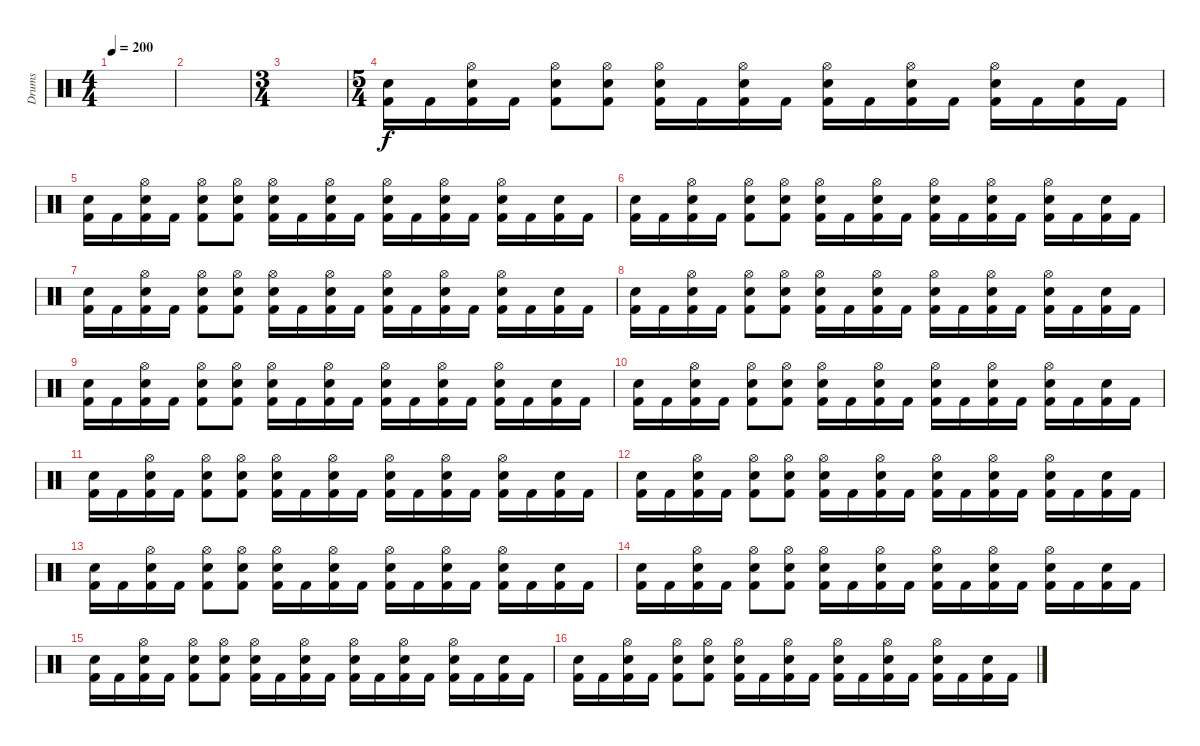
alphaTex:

\track ("Drums" "Drums") {instrument percussion}
\staff {score}
\articulation defaults
\ts (4 4)
\tempo 200
\clef neutral
\ks c
|
|
\ts (3 4)
|
\ts (5 4)
("Electric Snare (hit)" "Kick (hit) 2").16 "Kick (hit) 2".16 ("Hi-Hat (open)" "Electric Snare (hit)" "Kick (hit) 2").16 "Kick (hit) 2".16 ("Hi-Hat (open)" "Electric Snare (hit)" "Kick (hit) 2").8 ("Hi-Hat (open)" "Electric Snare (hit)" "Kick (hit) 2").8 ("Hi-Hat (open)" "Electric Snare (hit)" "Kick (hit) 2").16 "Kick (hit) 2".16 ("Hi-Hat (open)" "Electric Snare (hit)" "Kick (hit) 2").16 "Kick (hit) 2".16 ("Hi-Hat (open)" "Electric Snare (hit)" "Kick (hit) 2").16 "Kick (hit) 2".16 ("Hi-Hat (open)" "Electric Snare (hit)" "Kick (hit) 2").16 "Kick (hit) 2".16 ("Hi-Hat (open)" "Electric Snare (hit)" "Kick (hit) 2").16 "Kick (hit) 2".16 ("Electric Snare (hit)" "Kick (hit) 2").16 "Kick (hit) 2".16 |
("Electric Snare (hit)" "Kick (hit) 2").16 "Kick (hit) 2".16 ("Hi-Hat (open)" "Electric Snare (hit)" "Kick (hit) 2").16 "Kick (hit) 2".16 ("Hi-Hat (open)" "Electric Snare (hit)" "Kick (hit) 2").8 ("Hi-Hat (open)" "Electric Snare (hit)" "Kick (hit) 2").8 ("Hi-Hat (open)" "Electric Snare (hit)" "Kick (hit) 2").16 "Kick (hit) 2".16 ("Hi-Hat (open)" "Electric Snare (hit)" "Kick (hit) 2").16 "Kick (hit) 2".16 ("Hi-Hat (open)" "Electric Snare (hit)" "Kick (hit) 2").16 "Kick (hit) 2".16 ("Hi-Hat (open)" "Electric Snare (hit)" "Kick (hit) 2").16 "Kick (hit) 2".16 ("Hi-Hat (open)" "Electric Snare (hit)" "Kick (hit) 2").16 "Kick (hit) 2".16 ("Electric Snare (hit)" "Kick (hit) 2").16 "Kick (hit) 2".16 |
("Electric Snare (hit)" "Kick (hit) 2").16 "Kick (hit) 2".16 ("Hi-Hat (open)" "Electric Snare (hit)" "Kick (hit) 2").16 "Kick (hit) 2".16 ("Hi-Hat (open)" "Electric Snare (hit)" "Kick (hit) 2").8 ("Hi-Hat (open)" "Electric Snare (hit)" "Kick (hit) 2").8 ("Hi-Hat (open)" "Electric Snare (hit)" "Kick (hit) 2").16 "Kick (hit) 2".16 ("Hi-Hat (open)" "Electric Snare (hit)" "Kick (hit) 2").16 "Kick (hit) 2".16 ("Hi-Hat (open)" "Electric Snare (hit)" "Kick (hit) 2").16 "Kick (hit) 2".16 ("Hi-Hat (open)" "Electric Snare (hit)" "Kick (hit) 2").16 "Kick (hit) 2".16 ("Hi-Hat (open)" "Electric Snare (hit)" "Kick (hit) 2").16 "Kick (hit) 2".16 ("Electric Snare (hit)" "Kick (hit) 2").16 "Kick (hit) 2".16 |
("Electric Snare (hit)" "Kick (hit) 2").16 "Kick (hit) 2".16 ("Hi-Hat (open)" "Electric Snare (hit)" "Kick (hit) 2").16 "Kick (hit) 2".16 ("Hi-Hat (open)" "Electric Snare (hit)" "Kick (hit) 2").8 ("Hi-Hat (open)" "Electric Snare (hit)" "Kick (hit) 2").8 ("Hi-Hat (open)" "Electric Snare (hit)" "Kick (hit) 2").16 "Kick (hit) 2".16 ("Hi-Hat (open)" "Electric Snare (hit)" "Kick (hit) 2").16 "Kick (hit) 2".16 ("Hi-Hat (open)" "Electric Snare (hit)" "Kick (hit) 2").16 "Kick (hit) 2".16 ("Hi-Hat (open)" "Electric Snare (hit)" "Kick (hit) 2").16 "Kick (hit) 2".16 ("Hi-Hat (open)" "Electric Snare (hit)" "Kick (hit) 2").16 "Kick (hit) 2".16 ("Electric Snare (hit)" "Kick (hit) 2").16 "Kick (hit) 2".16 |
("Electric Snare (hit)" "Kick (hit) 2").16 "Kick (hit) 2".16 ("Hi-Hat (open)" "Electric Snare (hit)" "Kick (hit) 2").16 "Kick (hit) 2".16 ("Hi-Hat (open)" "Electric Snare (hit)" "Kick (hit) 2").8 ("Hi-Hat (open)" "Electric Snare (hit)" "Kick (hit) 2").8 ("Hi-Hat (open)" "Electric Snare (hit)" "Kick (hit) 2").16 "Kick (hit) 2".16 ("Hi-Hat (open)" "Electric Snare (hit)" "Kick (hit) 2").16 "Kick (hit) 2".16 ("Hi-Hat (open)" "Electric Snare (hit)" "Kick (hit) 2").16 "Kick (hit) 2".16 ("Hi-Hat (open)" "Electric Snare (hit)" "Kick (hit) 2").16 "Kick (hit) 2".16 ("Hi-Hat (open)" "Electric Snare (hit)" "Kick (hit) 2").16 "Kick (hit) 2".16 ("Electric Snare (hit)" "Kick (hit) 2").16 "Kick (hit) 2".16 |
("Electric Snare (hit)" "Kick (hit) 2").16 "Kick (hit) 2".16 ("Hi-Hat (open)" "Electric Snare (hit)" "Kick (hit) 2").16 "Kick (hit) 2".16 ("Hi-Hat (open)" "Electric Snare (hit)" "Kick (hit) 2").8 ("Hi-Hat (open)" "Electric Snare (hit)" "Kick (hit) 2").8 ("Hi-Hat (open)" "Electric Snare (hit)" "Kick (hit) 2").16 "Kick (hit) 2".16 ("Hi-Hat (open)" "Electric Snare (hit)" "Kick (hit) 2").16 "Kick (hit) 2".16 ("Hi-Hat (open)" "Electric Snare (hit)" "Kick (hit) 2").16 "Kick (hit) 2".16 ("Hi-Hat (open)" "Electric Snare (hit)" "Kick (hit) 2").16 "Kick (hit) 2".16 ("Hi-Hat (open)" "Electric Snare (hit)" "Kick (hit) 2").16 "Kick (hit) 2".16 ("Electric Snare (hit)" "Kick (hit) 2").16 "Kick (hit) 2".16 |
("Electric Snare (hit)" "Kick (hit) 2").16 "Kick (hit) 2".16 ("Hi-Hat (open)" "Electric Snare (hit)" "Kick (hit) 2").16 "Kick (hit) 2".16 ("Hi-Hat (open)" "Electric Snare (hit)" "Kick (hit) 2").8 ("Hi-Hat (open)" "Electric Snare (hit)" "Kick (hit) 2").8 ("Hi-Hat (open)" "Electric Snare (hit)" "Kick (hit) 2").16 "Kick (hit) 2".16 ("Hi-Hat (open)" "Electric Snare (hit)" "Kick (hit) 2").16 "Kick (hit) 2".16 ("Hi-Hat (open)" "Electric Snare (hit)" "Kick (hit) 2").16 "Kick (hit) 2".16 ("Hi-Hat (open)" "Electric Snare (hit)" "Kick (hit) 2").16 "Kick (hit) 2".16 ("Hi-Hat (open)" "Electric Snare (hit)" "Kick (hit) 2").16 "Kick (hit) 2".16 ("Electric Snare (hit)" "Kick (hit) 2").16 "Kick (hit) 2".16 |
("Electric Snare (hit)" "Kick (hit) 2").16 "Kick (hit) 2".16 ("Hi-Hat (open)" "Electric Snare (hit)" "Kick (hit) 2").16 "Kick (hit) 2".16 ("Hi-Hat (open)" "Electric Snare (hit)" "Kick (hit) 2").8 ("Hi-Hat (open)" "Electric Snare (hit)" "Kick (hit) 2").8 ("Hi-Hat (open)" "Electric Snare (hit)" "Kick (hit) 2").16 "Kick (hit) 2".16 ("Hi-Hat (open)" "Electric Snare (hit)" "Kick (hit) 2").16 "Kick (hit) 2".16 ("Hi-Hat (open)" "Electric Snare (hit)" "Kick (hit) 2").16 "Kick (hit) 2".16 ("Hi-Hat (open)" "Electric Snare (hit)" "Kick (hit) 2").16 "Kick (hit) 2".16 ("Hi-Hat (open)" "Electric Snare (hit)" "Kick (hit) 2").16 "Kick (hit) 2".16 ("Electric Snare (hit)" "Kick (hit) 2").16 "Kick (hit) 2".16 |
("Electric Snare (hit)" "Kick (hit) 2").16 "Kick (hit) 2".16 ("Hi-Hat (open)" "Electric Snare (hit)" "Kick (hit) 2").16 "Kick (hit) 2".16 ("Hi-Hat (open)" "Electric Snare (hit)" "Kick (hit) 2").8 ("Hi-Hat (open)" "Electric Snare (hit)" "Kick (hit) 2").8 ("Hi-Hat (open)" "Electric Snare (hit)" "Kick (hit) 2").16 "Kick (hit) 2".16 ("Hi-Hat (open)" "Electric Snare (hit)" "Kick (hit) 2").16 "Kick (hit) 2".16 ("Hi-Hat (open)" "Electric Snare (hit)" "Kick (hit) 2").16 "Kick (hit) 2".16 ("Hi-Hat (open)" "Electric Snare (hit)" "Kick (hit) 2").16 "Kick (hit) 2".16 ("Hi-Hat (open)" "Electric Snare (hit)" "Kick (hit) 2").16 "Kick (hit) 2".16 ("Electric Snare (hit)" "Kick (hit) 2").16 "Kick (hit) 2".16 |
("Electric Snare (hit)" "Kick (hit) 2").16 "Kick (hit) 2".16 ("Hi-Hat (open)" "Electric Snare (hit)" "Kick (hit) 2").16 "Kick (hit) 2".16 ("Hi-Hat (open)" "Electric Snare (hit)" "Kick (hit) 2").8 ("Hi-Hat (open)" "Electric Snare (hit)" "Kick (hit) 2").8 ("Hi-Hat (open)" "Electric Snare (hit)" "Kick (hit) 2").16 "Kick (hit) 2".16 ("Hi-Hat (open)" "Electric Snare (hit)" "Kick (hit) 2").16 "Kick (hit) 2".16 ("Hi-Hat (open)" "Electric Snare (hit)" "Kick (hit) 2").16 "Kick (hit) 2".16 ("Hi-Hat (open)" "Electric Snare (hit)" "Kick (hit) 2").16 "Kick (hit) 2".16 ("Hi-Hat (open)" "Electric Snare (hit)" "Kick (hit) 2").16 "Kick (hit) 2".16 ("Electric Snare (hit)" "Kick (hit) 2").16 "Kick (hit) 2".16 |
("Electric Snare (hit)" "Kick (hit) 2").16 "Kick (hit) 2".16 ("Hi-Hat (open)" "Electric Snare (hit)" "Kick (hit) 2").16 "Kick (hit) 2".16 ("Hi-Hat (open)" "Electric Snare (hit)" "Kick (hit) 2").8 ("Hi-Hat (open)" "Electric Snare (hit)" "Kick (hit) 2").8 ("Hi-Hat (open)" "Electric Snare (hit)" "Kick (hit) 2").16 "Kick (hit) 2".16 ("Hi-Hat (open)" "Electric Snare (hit)" "Kick (hit) 2").16 "Kick (hit) 2".16 ("Hi-Hat (open)" "Electric Snare (hit)" "Kick (hit) 2").16 "Kick (hit) 2".16 ("Hi-Hat (open)" "Electric Snare (hit)" "Kick (hit) 2").16 "Kick (hit) 2".16 ("Hi-Hat (open)" "Electric Snare (hit)" "Kick (hit) 2").16 "Kick (hit) 2".16 ("Electric Snare (hit)" "Kick (hit) 2").16 "Kick (hit) 2".16 |
("Electric Snare (hit)" "Kick (hit) 2").16 "Kick (hit) 2".16 ("Hi-Hat (open)" "Electric Snare (hit)" "Kick (hit) 2").16 "Kick (hit) 2".16 ("Hi-Hat (open)" "Electric Snare (hit)" "Kick (hit) 2").8 ("Hi-Hat (open)" "Electric Snare (hit)" "Kick (hit) 2").8 ("Hi-Hat (open)" "Electric Snare (hit)" "Kick (hit) 2").16 "Kick (hit) 2".16 ("Hi-Hat (open)" "Electric Snare (hit)" "Kick (hit) 2").16 "Kick (hit) 2".16 ("Hi-Hat (open)" "Electric Snare (hit)" "Kick (hit) 2").16 "Kick (hit) 2".16 ("Hi-Hat (open)" "Electric Snare (hit)" "Kick (hit) 2").16 "Kick (hit) 2".16 ("Hi-Hat (open)" "Electric Snare (hit)" "Kick (hit) 2").16 "Kick (hit) 2".16 ("Electric Snare (hit)" "Kick (hit) 2").16 "Kick (hit) 2".16 |
("Electric Snare (hit)" "Kick (hit) 2").16 "Kick (hit) 2".16 ("Hi-Hat (open)" "Electric Snare (hit)" "Kick (hit) 2").16 "Kick (hit) 2".16 ("Hi-Hat (open)" "Electric Snare (hit)" "Kick (hit) 2").8 ("Hi-Hat (open)" "Electric Snare (hit)" "Kick (hit) 2").8 ("Hi-Hat (open)" "Electric Snare (hit)" "Kick (hit) 2").16 "Kick (hit) 2".16 ("Hi-Hat (open)" "Electric Snare (hit)" "Kick (hit) 2").16 "Kick (hit) 2".16 ("Hi-Hat (open)" "Electric Snare (hit)" "Kick (hit) 2").16 "Kick (hit) 2".16 ("Hi-Hat (open)" "Electric Snare (hit)" "Kick (hit) 2").16 "Kick (hit) 2".16 ("Hi-Hat (open)" "Electric Snare (hit)" "Kick (hit) 2").16 "Kick (hit) 2".16 ("Electric Snare (hit)" "Kick (hit) 2").16 "Kick (hit) 2".16
